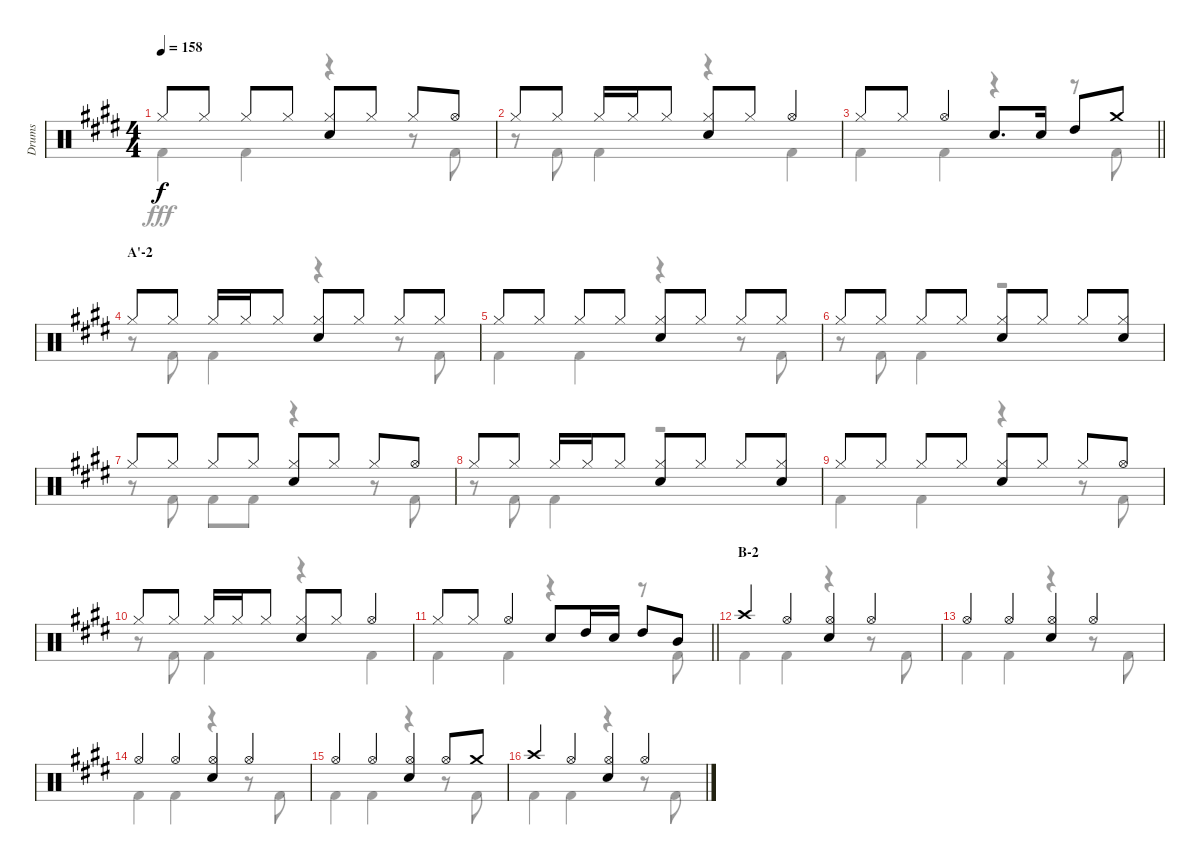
\track ("Drums" "Drums") {instrument percussion}
\staff {score}
\articulation defaults
\voice
\ts (4 4)
\tempo 158
\clef neutral
\ks e "Hi-Hat (closed)".8{dy f} "Hi-Hat (closed)".8 "Hi-Hat (closed)".8 "Hi-Hat (closed)".8
("Hi-Hat (closed)" "Snare (hit) 2").8 "Hi-Hat (closed)".8 "Hi-Hat (closed)".8 "Hi-Hat (open)".8 |
"Hi-Hat (closed)".8 "Hi-Hat (closed)".8 "Hi-Hat (closed)".16 "Hi-Hat (closed)".16 "Hi-Hat (closed)".8 ("Hi-Hat (closed)" "Snare (hit) 2").8 "Hi-Hat (closed)".8 "Hi-Hat (open)".4 |
\barLineRight lightlight "Hi-Hat (closed)".8 "Hi-Hat (closed)".8 "Hi-Hat (open)".4 "Snare (hit) 2".8{d} "Snare (hit) 2".16 "High Tom (hit)".8 "Crash medium (hit)".8
|
\section ("" "A'-2")
"Hi-Hat (closed)".8 "Hi-Hat (closed)".8 "Hi-Hat (closed)".16 "Hi-Hat (closed)".16 "Hi-Hat (closed)".8 ("Hi-Hat (closed)" "Snare (hit) 2").8 "Hi-Hat (closed)".8 "Hi-Hat (closed)".8 "Hi-Hat (closed)".8 |
"Hi-Hat (closed)".8 "Hi-Hat (closed)".8 "Hi-Hat (closed)".8 "Hi-Hat (closed)".8 ("Hi-Hat (closed)" "Snare (hit) 2").8 "Hi-Hat (closed)".8 "Hi-Hat (closed)".8 "Hi-Hat (closed)".8 |
"Hi-Hat (closed)".8 "Hi-Hat (closed)".8 "Hi-Hat (closed)".8 "Hi-Hat (closed)".8 ("Hi-Hat (closed)" "Snare (hit) 2").8 "Hi-Hat (closed)".8 "Hi-Hat (closed)".8 ("Hi-Hat (closed)" "Snare (hit) 2").8 |
"Hi-Hat (closed)".8 "Hi-Hat (closed)".8 "Hi-Hat (closed)".8 "Hi-Hat (closed)".8 ("Hi-Hat (closed)" "Snare (hit) 2").8 "Hi-Hat (closed)".8 "Hi-Hat (closed)".8 "Hi-Hat (open)".8 |
"Hi-Hat (closed)".8 "Hi-Hat (closed)".8 "Hi-Hat (closed)".16 "Hi-Hat (closed)".16 "Hi-Hat (closed)".8 ("Hi-Hat (closed)" "Snare (hit) 2").8 "Hi-Hat (closed)".8 "Hi-Hat (closed)".8 ("Hi-Hat (closed)" "Snare (hit) 2").8 |
"Hi-Hat (closed)".8 "Hi-Hat (closed)".8 "Hi-Hat (closed)".8 "Hi-Hat (closed)".8 ("Hi-Hat (closed)" "Snare (hit) 2").8 "Hi-Hat (closed)".8 "Hi-Hat (closed)".8 "Hi-Hat (open)".8 |
"Hi-Hat (closed)".8 "Hi-Hat (closed)".8 "Hi-Hat (closed)".16 "Hi-Hat (closed)".16 "Hi-Hat (closed)".8 ("Hi-Hat (closed)" "Snare (hit) 2").8 "Hi-Hat (closed)".8 "Hi-Hat (open)".4 |
\barLineRight lightlight "Hi-Hat (closed)".8 "Hi-Hat (closed)".8 "Hi-Hat (open)".4 "Snare (hit) 2".8 "High Tom (hit)".16 "Snare (hit) 2".16 "High Tom (hit)".8 "Mid Tom (hit)".8
|
\section ("" "B-2")
"Crash high (hit)".4 "Hi-Hat (open)".4 ("Hi-Hat (open)" "Snare (hit) 2").4 "Hi-Hat (open)".4 |
"Hi-Hat (open)".4 "Hi-Hat (open)".4 ("Hi-Hat (open)" "Snare (hit) 2").4 "Hi-Hat (open)".4 |
"Hi-Hat (open)".4 "Hi-Hat (open)".4 ("Hi-Hat (open)" "Snare (hit) 2").4 "Hi-Hat (open)".4 |
"Hi-Hat (open)".4 "Hi-Hat (open)".4 ("Hi-Hat (open)" "Snare (hit) 2").4 "Hi-Hat (open)".8 "Crash medium (hit)".8 |
"Crash high (hit)".4 "Hi-Hat (open)".4 ("Hi-Hat (open)" "Snare (hit) 2").4 "Hi-Hat (open)".4
\voice
\clef neutral
\ottava regular
\simile none
\ks e "Kick (hit) 2".4{dy fff} "Kick (hit) 2".4
r.4 r.8 "Kick (hit) 2".8 |
r.8 "Kick (hit) 2".8 "Kick (hit) 2".4 r.4 "Kick (hit) 2".4 |
\barLineRight lightlight "Kick (hit) 2".4 "Kick (hit) 2".4
r.4 r.8 "Kick (hit) 2".8 |
r.8 "Kick (hit) 2".8 "Kick (hit) 2".4 r.4 r.8 "Kick (hit) 2".8 |
"Kick (hit) 2".4 "Kick (hit) 2".4 r.4 r.8 "Kick (hit) 2".8 |
r.8 "Kick (hit) 2".8 "Kick (hit) 2".4 r.2 |
r.8 "Kick (hit) 2".8 "Kick (hit) 2".8 "Kick (hit) 2".8 r.4 r.8 "Kick (hit) 2".8 |
r.8 "Kick (hit) 2".8 "Kick (hit) 2".4 r.2 |
"Kick (hit) 2".4 "Kick (hit) 2".4 r.4 r.8 "Kick (hit) 2".8 |
r.8 "Kick (hit) 2".8 "Kick (hit) 2".4 r.4 "Kick (hit) 2".4 |
\barLineRight lightlight "Kick (hit) 2".4 "Kick (hit) 2".4
r.4 r.8 "Kick (hit) 2".8 |
"Kick (hit) 2".4 "Kick (hit) 2".4 r.4 r.8 "Kick (hit) 2".8 |
"Kick (hit) 2".4 "Kick (hit) 2".4 r.4 r.8 "Kick (hit) 2".8 |
"Kick (hit) 2".4 "Kick (hit) 2".4 r.4 r.8 "Kick (hit) 2".8 |
"Kick (hit) 2".4 "Kick (hit) 2".4 r.4 r.8 "Kick (hit) 2".8 |
"Kick (hit) 2".4 "Kick (hit) 2".4 r.4 r.8 "Kick (hit) 2".8
